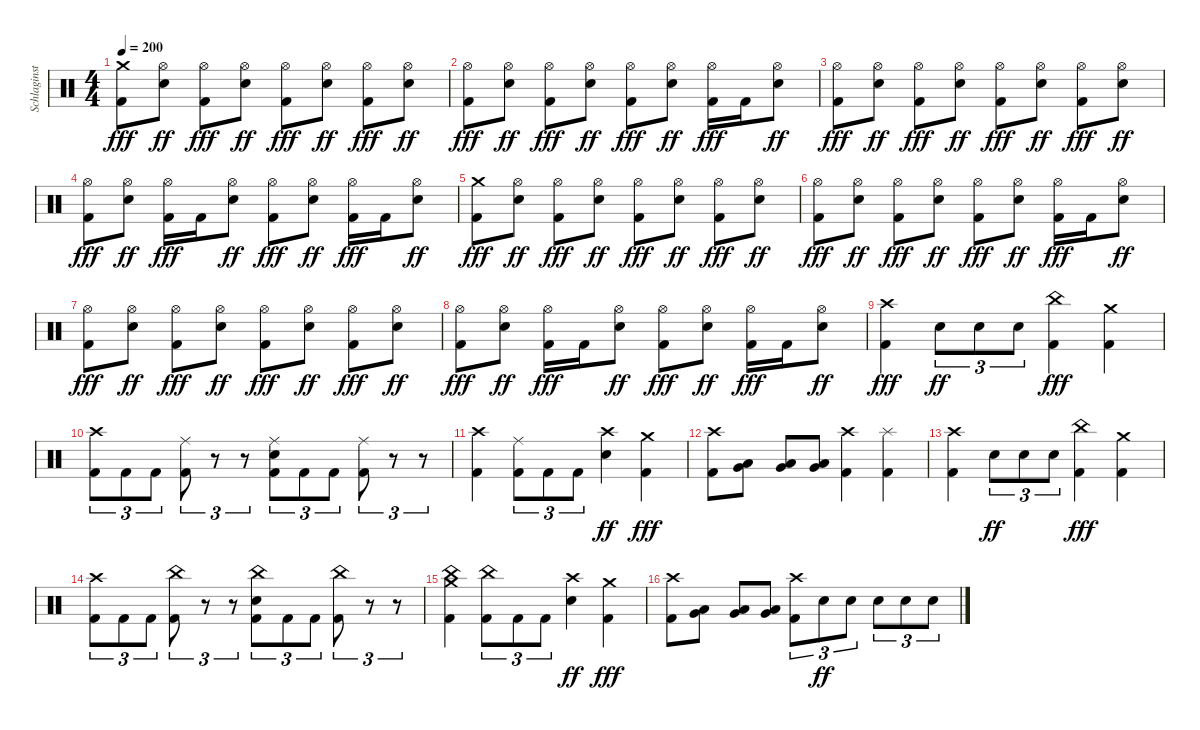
\track ("Schlaginstrumente - Auswahl" "Schlaginst") {instrument percussion}
\staff {score}
\articulation defaults
\ts (4 4)
\tempo 200
\clef neutral
\ks c
("Crash medium (hit)" "Kick (hit) 2").8{dy fff} ("Hi-Hat (open)" "Snare (hit) 2").8{dy ff} ("Hi-Hat (open)" "Kick (hit) 2").8{dy fff} ("Hi-Hat (open)" "Snare (hit) 2").8{dy ff} ("Hi-Hat (open)" "Kick (hit) 2").8{dy fff} ("Hi-Hat (open)" "Snare (hit) 2").8{dy ff} ("Hi-Hat (open)" "Kick (hit) 2").8{dy fff} ("Hi-Hat (open)" "Snare (hit) 2").8{dy ff} |
("Hi-Hat (open)" "Kick (hit) 2").8{dy fff} ("Hi-Hat (open)" "Snare (hit) 2").8{dy ff} ("Hi-Hat (open)" "Kick (hit) 2").8{dy fff} ("Hi-Hat (open)" "Snare (hit) 2").8{dy ff} ("Hi-Hat (open)" "Kick (hit) 2").8{dy fff} ("Hi-Hat (open)" "Snare (hit) 2").8{dy ff} ("Hi-Hat (open)" "Kick (hit) 2").16{dy fff} "Kick (hit) 2".16 ("Hi-Hat (open)" "Snare (hit) 2").8{dy ff} |
("Hi-Hat (open)" "Kick (hit) 2").8{dy fff} ("Hi-Hat (open)" "Snare (hit) 2").8{dy ff} ("Hi-Hat (open)" "Kick (hit) 2").8{dy fff} ("Hi-Hat (open)" "Snare (hit) 2").8{dy ff} ("Hi-Hat (open)" "Kick (hit) 2").8{dy fff} ("Hi-Hat (open)" "Snare (hit) 2").8{dy ff} ("Hi-Hat (open)" "Kick (hit) 2").8{dy fff} ("Hi-Hat (open)" "Snare (hit) 2").8{dy ff} |
("Hi-Hat (open)" "Kick (hit) 2").8{dy fff} ("Hi-Hat (open)" "Snare (hit) 2").8{dy ff} ("Hi-Hat (open)" "Kick (hit) 2").16{dy fff} "Kick (hit) 2".16 ("Hi-Hat (open)" "Snare (hit) 2").8{dy ff} ("Hi-Hat (open)" "Kick (hit) 2").8{dy fff} ("Hi-Hat (open)" "Snare (hit) 2").8{dy ff} ("Hi-Hat (open)" "Kick (hit) 2").16{dy fff} "Kick (hit) 2".16 ("Hi-Hat (open)" "Snare (hit) 2").8{dy ff} |
("Crash medium (hit)" "Kick (hit) 2").8{dy fff} ("Hi-Hat (open)" "Snare (hit) 2").8{dy ff} ("Hi-Hat (open)" "Kick (hit) 2").8{dy fff} ("Hi-Hat (open)" "Snare (hit) 2").8{dy ff} ("Hi-Hat (open)" "Kick (hit) 2").8{dy fff} ("Hi-Hat (open)" "Snare (hit) 2").8{dy ff} ("Hi-Hat (open)" "Kick (hit) 2").8{dy fff} ("Hi-Hat (open)" "Snare (hit) 2").8{dy ff} |
("Hi-Hat (open)" "Kick (hit) 2").8{dy fff} ("Hi-Hat (open)" "Snare (hit) 2").8{dy ff} ("Hi-Hat (open)" "Kick (hit) 2").8{dy fff} ("Hi-Hat (open)" "Snare (hit) 2").8{dy ff} ("Hi-Hat (open)" "Kick (hit) 2").8{dy fff} ("Hi-Hat (open)" "Snare (hit) 2").8{dy ff} ("Hi-Hat (open)" "Kick (hit) 2").16{dy fff} "Kick (hit) 2".16 ("Hi-Hat (open)" "Snare (hit) 2").8{dy ff} |
("Hi-Hat (open)" "Kick (hit) 2").8{dy fff} ("Hi-Hat (open)" "Snare (hit) 2").8{dy ff} ("Hi-Hat (open)" "Kick (hit) 2").8{dy fff} ("Hi-Hat (open)" "Snare (hit) 2").8{dy ff} ("Hi-Hat (open)" "Kick (hit) 2").8{dy fff} ("Hi-Hat (open)" "Snare (hit) 2").8{dy ff} ("Hi-Hat (open)" "Kick (hit) 2").8{dy fff} ("Hi-Hat (open)" "Snare (hit) 2").8{dy ff} |
("Hi-Hat (open)" "Kick (hit) 2").8{dy fff} ("Hi-Hat (open)" "Snare (hit) 2").8{dy ff} ("Hi-Hat (open)" "Kick (hit) 2").16{dy fff} "Kick (hit) 2".16 ("Hi-Hat (open)" "Snare (hit) 2").8{dy ff} ("Hi-Hat (open)" "Kick (hit) 2").8{dy fff} ("Hi-Hat (open)" "Snare (hit) 2").8{dy ff} ("Hi-Hat (open)" "Kick (hit) 2").16{dy fff} "Kick (hit) 2".16 ("Hi-Hat (open)" "Snare (hit) 2").8{dy ff} |
("Crash high (hit)" "Kick (hit) 2").4{dy fff} "Snare (hit) 2".8{tu (3 2) dy ff} "Snare (hit) 2".8{tu (3 2)} "Snare (hit) 2".8{tu (3 2)} ("China (hit)" "Kick (hit) 2").4{dy fff} ("Crash medium (hit)" "Kick (hit) 2").4 |
("Crash high (hit)" "Kick (hit) 2").8{tu (3 2)} "Kick (hit) 2".8{tu (3 2)} "Kick (hit) 2".8{tu (3 2)} ("Ride (middle)" "Kick (hit) 2").8{tu (3 2)} r.8{tu (3 2)} r.8{tu (3 2)} ("Ride (middle)" "Snare (hit) 2" "Kick (hit) 2").8{tu (3 2)} "Kick (hit) 2".8{tu (3 2)} "Kick (hit) 2".8{tu (3 2)} ("Ride (middle)" "Kick (hit) 2").8{tu (3 2)} r.8{tu (3 2)} r.8{tu (3 2)} |
("Crash high (hit)" "Kick (hit) 2").4 ("Ride (middle)" "Kick (hit) 2").8{tu (3 2)} "Kick (hit) 2".8{tu (3 2)} "Kick (hit) 2".8{tu (3 2)} ("Crash high (hit)" "Snare (hit) 2").4{dy ff} ("Crash medium (hit)" "Kick (hit) 2").4{dy fff} |
("Crash high (hit)" "Kick (hit) 2").8 ("Very Low Tom (hit)" "Low Floor Tom (hit)").8 ("Very Low Tom (hit)" "Low Floor Tom (hit)").8 ("Very Low Tom (hit)" "Low Floor Tom (hit)").8 ("Crash high (hit)" "Kick (hit) 2").4 ("Splash (hit)" "Kick (hit) 2").4 |
("Crash high (hit)" "Kick (hit) 2").4 "Snare (hit) 2".8{tu (3 2) dy ff} "Snare (hit) 2".8{tu (3 2)} "Snare (hit) 2".8{tu (3 2)} ("China (hit)" "Kick (hit) 2").4{dy fff} ("Crash medium (hit)" "Kick (hit) 2").4 |
("Crash high (hit)" "Kick (hit) 2").8{tu (3 2)} "Kick (hit) 2".8{tu (3 2)} "Kick (hit) 2".8{tu (3 2)} ("China (hit)" "Kick (hit) 2").8{tu (3 2)} r.8{tu (3 2)} r.8{tu (3 2)} ("China (hit)" "Snare (hit) 2" "Kick (hit) 2").8{tu (3 2)} "Kick (hit) 2".8{tu (3 2)} "Kick (hit) 2".8{tu (3 2)} ("China (hit)" "Kick (hit) 2").8{tu (3 2)} r.8{tu (3 2)} r.8{tu (3 2)} |
("China (hit)" "Crash medium (hit)" "Kick (hit) 2").4 ("China (hit)" "Kick (hit) 2").8{tu (3 2)} "Kick (hit) 2".8{tu (3 2)} "Kick (hit) 2".8{tu (3 2)} ("Crash high (hit)" "Snare (hit) 2").4{dy ff} ("Crash medium (hit)" "Kick (hit) 2").4{dy fff} |
("Crash high (hit)" "Kick (hit) 2").8 ("Very Low Tom (hit)" "Low Floor Tom (hit)").8 ("Very Low Tom (hit)" "Low Floor Tom (hit)").8 ("Very Low Tom (hit)" "Low Floor Tom (hit)").8 ("Crash high (hit)" "Kick (hit) 2").8{tu (3 2)} "Snare (hit) 2".8{tu (3 2) dy ff} "Snare (hit) 2".8{tu (3 2)} "Snare (hit) 2".8{tu (3 2)} "Snare (hit) 2".8{tu (3 2)} "Snare (hit) 2".8{tu (3 2)}
